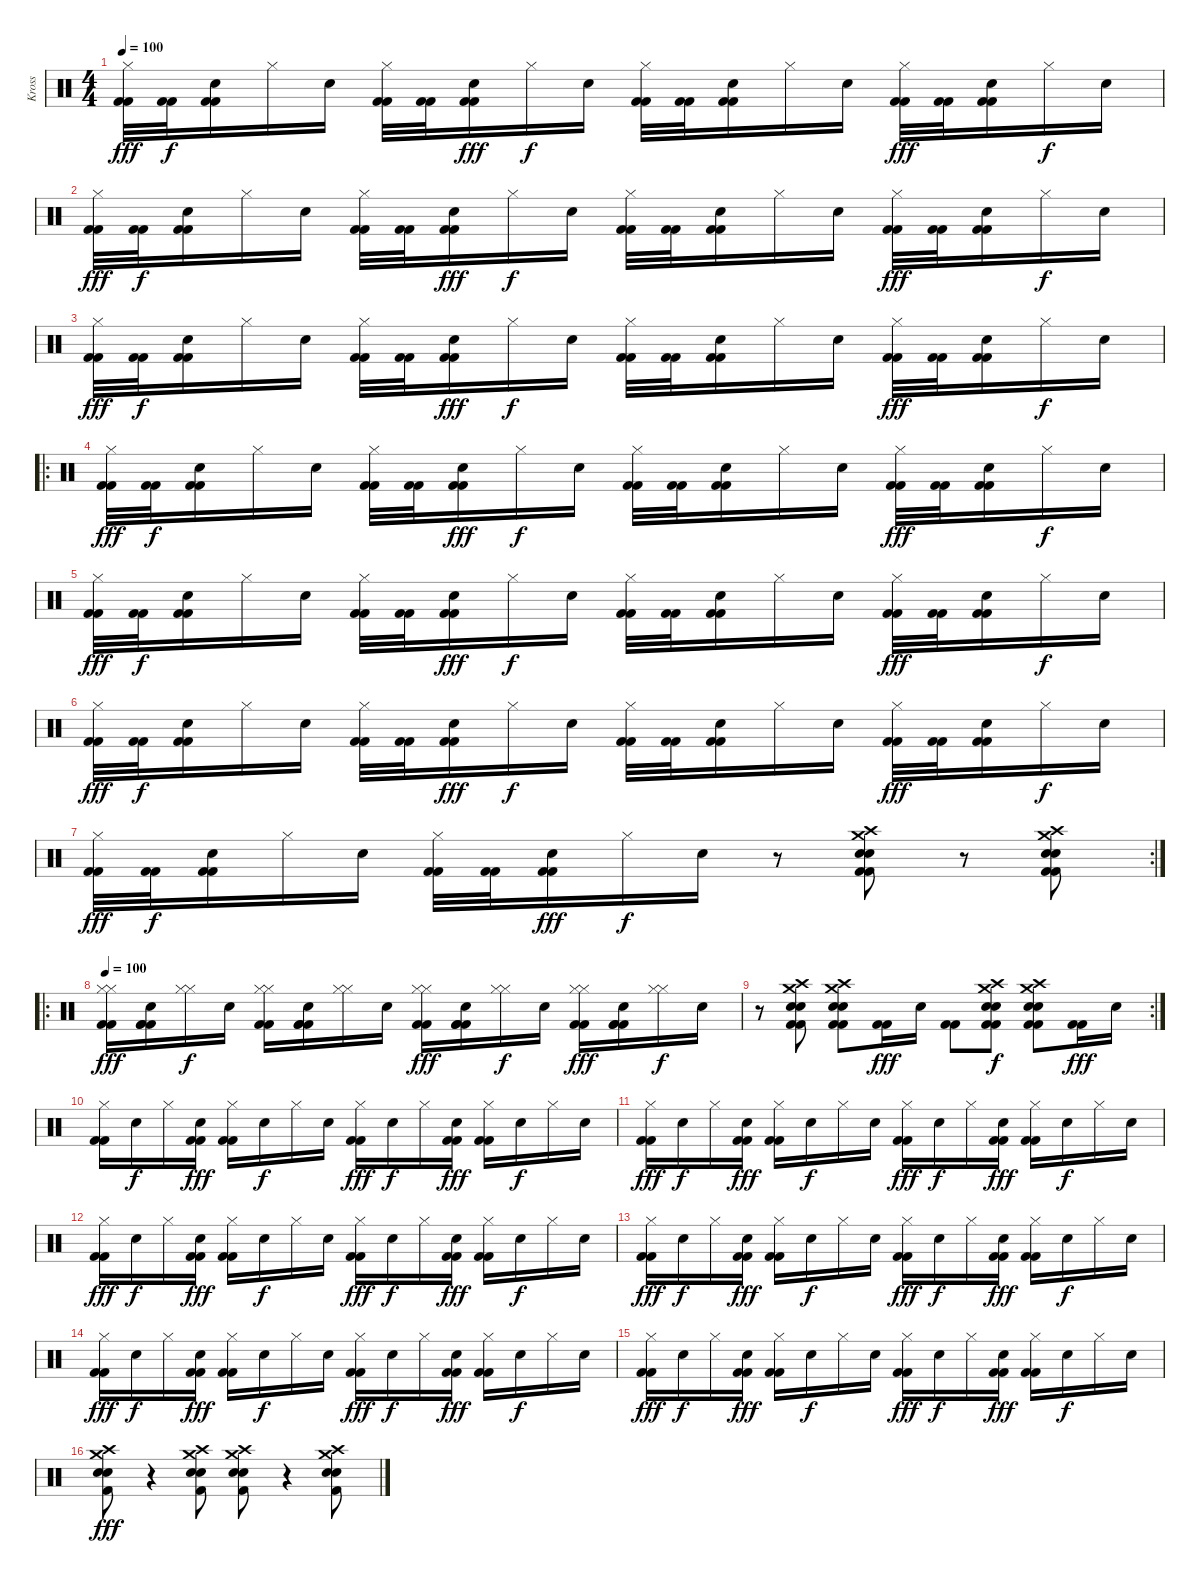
\track ("Kross" "Kross") {instrument percussion}
\staff {score}
\articulation defaults
\ts (4 4)
\tempo 100
\clef neutral
\ks c
("Kick (hit) 2" "Kick (hit) 2" "Hi-Hat (closed)").32{dy fff} ("Kick (hit) 2" "Kick (hit) 2").32{dy f} ("Kick (hit) 2" "Kick (hit) 2" "Snare (hit) 2").16 "Hi-Hat (closed)".16 "Snare (hit) 2".16 ("Kick (hit) 2" "Kick (hit) 2" "Hi-Hat (closed)").32 ("Kick (hit) 2" "Kick (hit) 2").32 ("Kick (hit) 2" "Kick (hit) 2" "Snare (hit) 2").16{dy fff} "Hi-Hat (closed)".16{dy f} "Snare (hit) 2".16 ("Kick (hit) 2" "Kick (hit) 2" "Hi-Hat (closed)").32 ("Kick (hit) 2" "Kick (hit) 2").32 ("Kick (hit) 2" "Kick (hit) 2" "Snare (hit) 2").16 "Hi-Hat (closed)".16 "Snare (hit) 2".16 ("Kick (hit) 2" "Kick (hit) 2" "Hi-Hat (closed)").32{dy fff} ("Kick (hit) 2" "Kick (hit) 2").32 ("Kick (hit) 2" "Kick (hit) 2" "Snare (hit) 2").16 "Hi-Hat (closed)".16{dy f} "Snare (hit) 2".16 |
("Kick (hit) 2" "Kick (hit) 2" "Hi-Hat (closed)").32{dy fff} ("Kick (hit) 2" "Kick (hit) 2").32{dy f} ("Kick (hit) 2" "Kick (hit) 2" "Snare (hit) 2").16 "Hi-Hat (closed)".16 "Snare (hit) 2".16 ("Kick (hit) 2" "Kick (hit) 2" "Hi-Hat (closed)").32 ("Kick (hit) 2" "Kick (hit) 2").32 ("Kick (hit) 2" "Kick (hit) 2" "Snare (hit) 2").16{dy fff} "Hi-Hat (closed)".16{dy f} "Snare (hit) 2".16 ("Kick (hit) 2" "Kick (hit) 2" "Hi-Hat (closed)").32 ("Kick (hit) 2" "Kick (hit) 2").32 ("Kick (hit) 2" "Kick (hit) 2" "Snare (hit) 2").16 "Hi-Hat (closed)".16 "Snare (hit) 2".16 ("Kick (hit) 2" "Kick (hit) 2" "Hi-Hat (closed)").32{dy fff} ("Kick (hit) 2" "Kick (hit) 2").32 ("Kick (hit) 2" "Kick (hit) 2" "Snare (hit) 2").16 "Hi-Hat (closed)".16{dy f} "Snare (hit) 2".16 |
("Kick (hit) 2" "Kick (hit) 2" "Hi-Hat (closed)").32{dy fff} ("Kick (hit) 2" "Kick (hit) 2").32{dy f} ("Kick (hit) 2" "Kick (hit) 2" "Snare (hit) 2").16 "Hi-Hat (closed)".16 "Snare (hit) 2".16 ("Kick (hit) 2" "Kick (hit) 2" "Hi-Hat (closed)").32 ("Kick (hit) 2" "Kick (hit) 2").32 ("Kick (hit) 2" "Kick (hit) 2" "Snare (hit) 2").16{dy fff} "Hi-Hat (closed)".16{dy f} "Snare (hit) 2".16 ("Kick (hit) 2" "Kick (hit) 2" "Hi-Hat (closed)").32 ("Kick (hit) 2" "Kick (hit) 2").32 ("Kick (hit) 2" "Kick (hit) 2" "Snare (hit) 2").16 "Hi-Hat (closed)".16 "Snare (hit) 2".16 ("Kick (hit) 2" "Kick (hit) 2" "Hi-Hat (closed)").32{dy fff} ("Kick (hit) 2" "Kick (hit) 2").32 ("Kick (hit) 2" "Kick (hit) 2" "Snare (hit) 2").16 "Hi-Hat (closed)".16{dy f} "Snare (hit) 2".16 |
\ro
("Kick (hit) 2" "Kick (hit) 2" "Hi-Hat (closed)").32{dy fff} ("Kick (hit) 2" "Kick (hit) 2").32{dy f} ("Kick (hit) 2" "Kick (hit) 2" "Snare (hit) 2").16 "Hi-Hat (closed)".16 "Snare (hit) 2".16 ("Kick (hit) 2" "Kick (hit) 2" "Hi-Hat (closed)").32 ("Kick (hit) 2" "Kick (hit) 2").32 ("Kick (hit) 2" "Kick (hit) 2" "Snare (hit) 2").16{dy fff} "Hi-Hat (closed)".16{dy f} "Snare (hit) 2".16 ("Kick (hit) 2" "Kick (hit) 2" "Hi-Hat (closed)").32 ("Kick (hit) 2" "Kick (hit) 2").32 ("Kick (hit) 2" "Kick (hit) 2" "Snare (hit) 2").16 "Hi-Hat (closed)".16 "Snare (hit) 2".16 ("Kick (hit) 2" "Kick (hit) 2" "Hi-Hat (closed)").32{dy fff} ("Kick (hit) 2" "Kick (hit) 2").32 ("Kick (hit) 2" "Kick (hit) 2" "Snare (hit) 2").16 "Hi-Hat (closed)".16{dy f} "Snare (hit) 2".16 |
("Kick (hit) 2" "Kick (hit) 2" "Hi-Hat (closed)").32{dy fff} ("Kick (hit) 2" "Kick (hit) 2").32{dy f} ("Kick (hit) 2" "Kick (hit) 2" "Snare (hit) 2").16 "Hi-Hat (closed)".16 "Snare (hit) 2".16 ("Kick (hit) 2" "Kick (hit) 2" "Hi-Hat (closed)").32 ("Kick (hit) 2" "Kick (hit) 2").32 ("Kick (hit) 2" "Kick (hit) 2" "Snare (hit) 2").16{dy fff} "Hi-Hat (closed)".16{dy f} "Snare (hit) 2".16 ("Kick (hit) 2" "Kick (hit) 2" "Hi-Hat (closed)").32 ("Kick (hit) 2" "Kick (hit) 2").32 ("Kick (hit) 2" "Kick (hit) 2" "Snare (hit) 2").16 "Hi-Hat (closed)".16 "Snare (hit) 2".16 ("Kick (hit) 2" "Kick (hit) 2" "Hi-Hat (closed)").32{dy fff} ("Kick (hit) 2" "Kick (hit) 2").32 ("Kick (hit) 2" "Kick (hit) 2" "Snare (hit) 2").16 "Hi-Hat (closed)".16{dy f} "Snare (hit) 2".16 |
("Kick (hit) 2" "Kick (hit) 2" "Hi-Hat (closed)").32{dy fff} ("Kick (hit) 2" "Kick (hit) 2").32{dy f} ("Kick (hit) 2" "Kick (hit) 2" "Snare (hit) 2").16 "Hi-Hat (closed)".16 "Snare (hit) 2".16 ("Kick (hit) 2" "Kick (hit) 2" "Hi-Hat (closed)").32 ("Kick (hit) 2" "Kick (hit) 2").32 ("Kick (hit) 2" "Kick (hit) 2" "Snare (hit) 2").16{dy fff} "Hi-Hat (closed)".16{dy f} "Snare (hit) 2".16 ("Kick (hit) 2" "Kick (hit) 2" "Hi-Hat (closed)").32 ("Kick (hit) 2" "Kick (hit) 2").32 ("Kick (hit) 2" "Kick (hit) 2" "Snare (hit) 2").16 "Hi-Hat (closed)".16 "Snare (hit) 2".16 ("Kick (hit) 2" "Kick (hit) 2" "Hi-Hat (closed)").32{dy fff} ("Kick (hit) 2" "Kick (hit) 2").32 ("Kick (hit) 2" "Kick (hit) 2" "Snare (hit) 2").16 "Hi-Hat (closed)".16{dy f} "Snare (hit) 2".16 |
\rc 2
("Kick (hit) 2" "Kick (hit) 2" "Hi-Hat (closed)").32{dy fff} ("Kick (hit) 2" "Kick (hit) 2").32{dy f} ("Kick (hit) 2" "Kick (hit) 2" "Snare (hit) 2").16 "Hi-Hat (closed)".16 "Snare (hit) 2".16 ("Kick (hit) 2" "Kick (hit) 2" "Hi-Hat (closed)").32 ("Kick (hit) 2" "Kick (hit) 2").32 ("Kick (hit) 2" "Kick (hit) 2" "Snare (hit) 2").16{dy fff} "Hi-Hat (closed)".16{dy f} "Snare (hit) 2".16 r.8 ("Crash high (hit)" "Crash medium (hit)" "Snare (hit) 2" "Snare (hit) 2" "Kick (hit) 2" "Kick (hit) 2").8 r.8 ("Crash medium (hit)" "Crash high (hit)" "Snare (hit) 2" "Snare (hit) 2" "Kick (hit) 2" "Kick (hit) 2").8 |
\ro
\tempo 100
("Kick (hit) 2" "Kick (hit) 2" "Hi-Hat (closed)" "Hi-Hat (closed)").16{dy fff} ("Kick (hit) 2" "Kick (hit) 2" "Kick (hit) 2" "Snare (hit) 2").16 ("Hi-Hat (closed)" "Hi-Hat (closed)").16{dy f} "Snare (hit) 2".16 ("Kick (hit) 2" "Kick (hit) 2" "Hi-Hat (closed)" "Hi-Hat (closed)").16 ("Kick (hit) 2" "Kick (hit) 2" "Kick (hit) 2" "Snare (hit) 2").16 ("Hi-Hat (closed)" "Hi-Hat (closed)").16 "Snare (hit) 2".16 ("Kick (hit) 2" "Kick (hit) 2" "Hi-Hat (closed)" "Hi-Hat (closed)").16{dy fff} ("Kick (hit) 2" "Kick (hit) 2" "Kick (hit) 2" "Snare (hit) 2").16 ("Hi-Hat (closed)" "Hi-Hat (closed)").16{dy f} "Snare (hit) 2".16 ("Kick (hit) 2" "Kick (hit) 2" "Hi-Hat (closed)" "Hi-Hat (closed)").16{dy fff} ("Kick (hit) 2" "Kick (hit) 2" "Kick (hit) 2" "Snare (hit) 2").16 ("Hi-Hat (closed)" "Hi-Hat (closed)").16{dy f} "Snare (hit) 2".16 |
\rc 2
r.8 ("Crash high (hit)" "Crash medium (hit)" "Snare (hit) 2" "Snare (hit) 2" "Kick (hit) 2" "Kick (hit) 2").8 ("Crash high (hit)" "Crash medium (hit)" "Snare (hit) 2" "Snare (hit) 2" "Kick (hit) 2" "Kick (hit) 2").8 ("Kick (hit) 2" "Kick (hit) 2").16{dy fff} "Snare (hit) 2".16 ("Kick (hit) 2" "Kick (hit) 2").8 ("Crash high (hit)" "Crash medium (hit)" "Snare (hit) 2" "Snare (hit) 2" "Kick (hit) 2" "Kick (hit) 2").8{dy f} ("Crash high (hit)" "Crash medium (hit)" "Snare (hit) 2" "Snare (hit) 2" "Kick (hit) 2" "Kick (hit) 2").8 ("Kick (hit) 2" "Kick (hit) 2").16{dy fff} "Snare (hit) 2".16 |
("Kick (hit) 2" "Kick (hit) 2" "Hi-Hat (closed)").16 "Snare (hit) 2".16{dy f} "Hi-Hat (closed)".16 ("Kick (hit) 2" "Kick (hit) 2" "Snare (hit) 2").16{dy fff} ("Kick (hit) 2" "Kick (hit) 2" "Hi-Hat (closed)").16 "Snare (hit) 2".16{dy f} "Hi-Hat (closed)".16 "Snare (hit) 2".16 ("Kick (hit) 2" "Kick (hit) 2" "Hi-Hat (closed)").16{dy fff} "Snare (hit) 2".16{dy f} "Hi-Hat (closed)".16 ("Kick (hit) 2" "Kick (hit) 2" "Snare (hit) 2").16{dy fff} ("Kick (hit) 2" "Kick (hit) 2" "Hi-Hat (closed)").16 "Snare (hit) 2".16{dy f} "Hi-Hat (closed)".16 "Snare (hit) 2".16 |
("Kick (hit) 2" "Kick (hit) 2" "Hi-Hat (closed)").16{dy fff} "Snare (hit) 2".16{dy f} "Hi-Hat (closed)".16 ("Kick (hit) 2" "Kick (hit) 2" "Snare (hit) 2").16{dy fff} ("Kick (hit) 2" "Kick (hit) 2" "Hi-Hat (closed)").16 "Snare (hit) 2".16{dy f} "Hi-Hat (closed)".16 "Snare (hit) 2".16 ("Kick (hit) 2" "Kick (hit) 2" "Hi-Hat (closed)").16{dy fff} "Snare (hit) 2".16{dy f} "Hi-Hat (closed)".16 ("Kick (hit) 2" "Kick (hit) 2" "Snare (hit) 2").16{dy fff} ("Kick (hit) 2" "Kick (hit) 2" "Hi-Hat (closed)").16 "Snare (hit) 2".16{dy f} "Hi-Hat (closed)".16 "Snare (hit) 2".16 |
("Kick (hit) 2" "Kick (hit) 2" "Hi-Hat (closed)").16{dy fff} "Snare (hit) 2".16{dy f} "Hi-Hat (closed)".16 ("Kick (hit) 2" "Kick (hit) 2" "Snare (hit) 2").16{dy fff} ("Kick (hit) 2" "Kick (hit) 2" "Hi-Hat (closed)").16 "Snare (hit) 2".16{dy f} "Hi-Hat (closed)".16 "Snare (hit) 2".16 ("Kick (hit) 2" "Kick (hit) 2" "Hi-Hat (closed)").16{dy fff} "Snare (hit) 2".16{dy f} "Hi-Hat (closed)".16 ("Kick (hit) 2" "Kick (hit) 2" "Snare (hit) 2").16{dy fff} ("Kick (hit) 2" "Kick (hit) 2" "Hi-Hat (closed)").16 "Snare (hit) 2".16{dy f} "Hi-Hat (closed)".16 "Snare (hit) 2".16 |
("Kick (hit) 2" "Kick (hit) 2" "Hi-Hat (closed)").16{dy fff} "Snare (hit) 2".16{dy f} "Hi-Hat (closed)".16 ("Kick (hit) 2" "Kick (hit) 2" "Snare (hit) 2").16{dy fff} ("Kick (hit) 2" "Kick (hit) 2" "Hi-Hat (closed)").16 "Snare (hit) 2".16{dy f} "Hi-Hat (closed)".16 "Snare (hit) 2".16 ("Kick (hit) 2" "Kick (hit) 2" "Hi-Hat (closed)").16{dy fff} "Snare (hit) 2".16{dy f} "Hi-Hat (closed)".16 ("Kick (hit) 2" "Kick (hit) 2" "Snare (hit) 2").16{dy fff} ("Kick (hit) 2" "Kick (hit) 2" "Hi-Hat (closed)").16 "Snare (hit) 2".16{dy f} "Hi-Hat (closed)".16 "Snare (hit) 2".16 |
("Kick (hit) 2" "Kick (hit) 2" "Hi-Hat (closed)").16{dy fff} "Snare (hit) 2".16{dy f} "Hi-Hat (closed)".16 ("Kick (hit) 2" "Kick (hit) 2" "Snare (hit) 2").16{dy fff} ("Kick (hit) 2" "Kick (hit) 2" "Hi-Hat (closed)").16 "Snare (hit) 2".16{dy f} "Hi-Hat (closed)".16 "Snare (hit) 2".16 ("Kick (hit) 2" "Kick (hit) 2" "Hi-Hat (closed)").16{dy fff} "Snare (hit) 2".16{dy f} "Hi-Hat (closed)".16 ("Kick (hit) 2" "Kick (hit) 2" "Snare (hit) 2").16{dy fff} ("Kick (hit) 2" "Kick (hit) 2" "Hi-Hat (closed)").16 "Snare (hit) 2".16{dy f} "Hi-Hat (closed)".16 "Snare (hit) 2".16 |
("Kick (hit) 2" "Kick (hit) 2" "Hi-Hat (closed)").16{dy fff} "Snare (hit) 2".16{dy f} "Hi-Hat (closed)".16 ("Kick (hit) 2" "Kick (hit) 2" "Snare (hit) 2").16{dy fff} ("Kick (hit) 2" "Kick (hit) 2" "Hi-Hat (closed)").16 "Snare (hit) 2".16{dy f} "Hi-Hat (closed)".16 "Snare (hit) 2".16 ("Kick (hit) 2" "Kick (hit) 2" "Hi-Hat (closed)").16{dy fff} "Snare (hit) 2".16{dy f} "Hi-Hat (closed)".16 ("Kick (hit) 2" "Kick (hit) 2" "Snare (hit) 2").16{dy fff} ("Kick (hit) 2" "Kick (hit) 2" "Hi-Hat (closed)").16 "Snare (hit) 2".16{dy f} "Hi-Hat (closed)".16 "Snare (hit) 2".16 |
("Crash medium (hit)" "Crash high (hit)" "Snare (hit) 2" "Snare (hit) 2" "Kick (hit) 2").8{dy fff} r.4 ("Crash medium (hit)" "Crash high (hit)" "Snare (hit) 2" "Snare (hit) 2" "Kick (hit) 2").8 ("Crash medium (hit)" "Crash high (hit)" "Snare (hit) 2" "Snare (hit) 2" "Kick (hit) 2").8 r.4 ("Crash medium (hit)" "Crash high (hit)" "Snare (hit) 2" "Snare (hit) 2" "Kick (hit) 2").8
